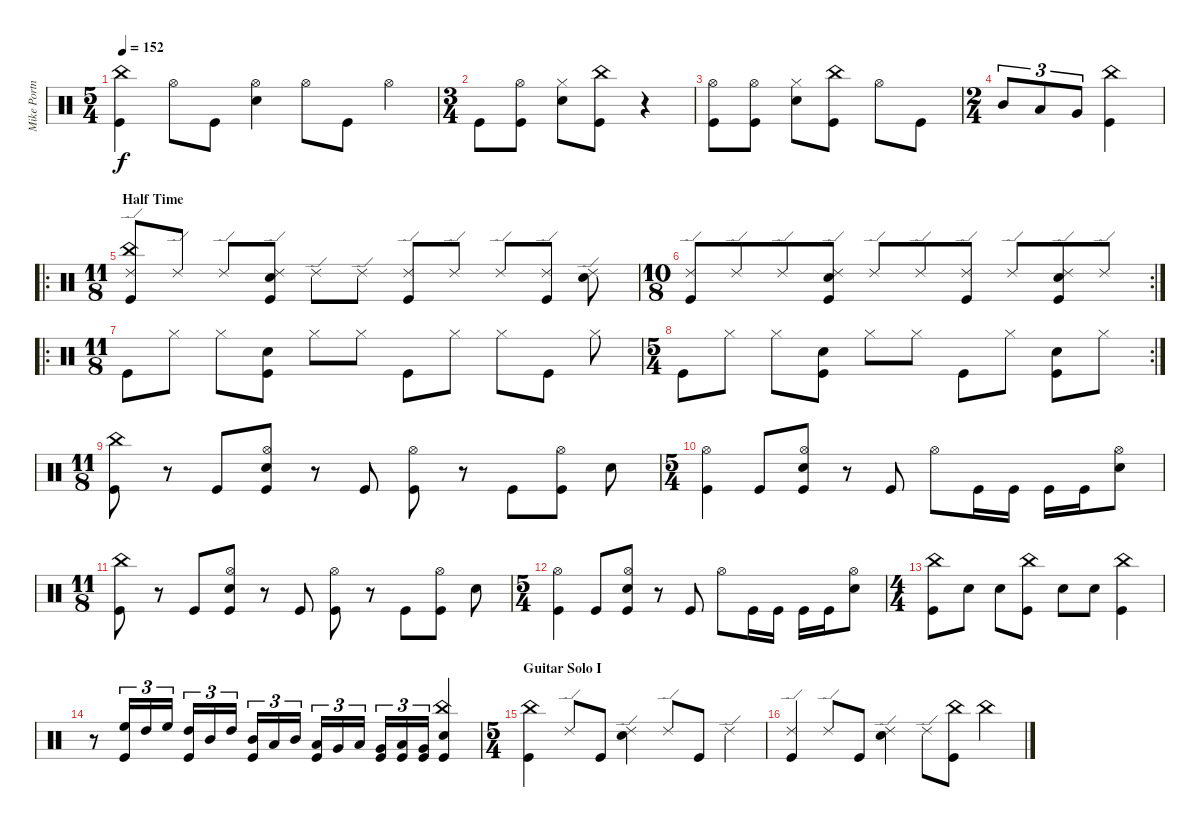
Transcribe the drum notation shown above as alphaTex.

\track ("Mike Portnoy (Drums)" "Mike Portn") {instrument percussion}
\staff {score}
\articulation defaults
\ts (5 4)
\tempo 152
\clef neutral
\ks c
("Kick (hit)" "China (hit)").4{dy f} "Hi-Hat (open)".8 "Kick (hit)".8 ("Snare (hit) 2" "Hi-Hat (open)").4 "Hi-Hat (open)".8 "Kick (hit)".8 "Hi-Hat (open)".4 |
\ts (3 4)
"Kick (hit)".8 ("Kick (hit)" "Hi-Hat (open)").8 ("Snare (hit) 2" "Hi-Hat (closed)").8 ("Kick (hit)" "China (hit)").8 r.4 |
("Kick (hit)" "Hi-Hat (open)").8 ("Kick (hit)" "Hi-Hat (open)").8 ("Snare (hit) 2" "Hi-Hat (closed)").8 ("Kick (hit)" "China (hit)").8 "Hi-Hat (open)".8 "Kick (hit)".8 |
\ts (2 4)
"Mid Tom (hit)".8{tu (3 2)} "Low Tom (hit)".8{tu (3 2)} "Very Low Tom (hit)".8{tu (3 2)} ("Kick (hit)" "China (hit)").4 |
\ro
\ts (11 8)
\section ("" "Half Time")
("Kick (hit)" "China (hit)" "Ride (edge) 2").8 "Ride (edge) 2".8 "Ride (edge) 2".8 ("Kick (hit)" "Snare (hit) 2" "Ride (edge) 2").8 "Ride (edge) 2".8 "Ride (edge) 2".8 ("Kick (hit)" "Ride (edge) 2").8 "Ride (edge) 2".8 "Ride (edge) 2".8 ("Kick (hit)" "Ride (edge) 2").8 ("Snare (hit) 2" "Ride (edge) 2").8 |
\rc 2
\ts (10 8)
("Kick (hit)" "Ride (edge) 2").8 "Ride (edge) 2".8 "Ride (edge) 2".8 ("Kick (hit)" "Snare (hit) 2" "Ride (edge) 2").8 "Ride (edge) 2".8 "Ride (edge) 2".8 ("Kick (hit)" "Ride (edge) 2").8 "Ride (edge) 2".8 ("Kick (hit)" "Snare (hit) 2" "Ride (edge) 2").8 "Ride (edge) 2".8 |
\ro
\ts (11 8)
"Kick (hit)".8 "Hi-Hat (closed)".8 "Hi-Hat (closed)".8 ("Kick (hit)" "Snare (hit) 2").8 "Hi-Hat (closed)".8 "Hi-Hat (closed)".8 "Kick (hit)".8 "Hi-Hat (closed)".8 "Hi-Hat (closed)".8 "Kick (hit)".8 "Hi-Hat (closed)".8 |
\rc 2
\ts (5 4)
"Kick (hit)".8 "Hi-Hat (closed)".8 "Hi-Hat (closed)".8 ("Kick (hit)" "Snare (hit) 2").8 "Hi-Hat (closed)".8 "Hi-Hat (closed)".8 "Kick (hit)".8 "Hi-Hat (closed)".8 ("Kick (hit)" "Snare (hit) 2").8 "Hi-Hat (closed)".8 |
\ts (11 8)
("Kick (hit)" "China (hit)").8 r.8 "Kick (hit)".8 ("Kick (hit)" "Snare (hit) 2" "Hi-Hat (open)").8 r.8 "Kick (hit)".8 ("Kick (hit)" "Hi-Hat (open)").8 r.8 "Kick (hit)".8 ("Kick (hit)" "Hi-Hat (open)").8 "Snare (hit) 2".8 |
\ts (5 4)
("Kick (hit)" "Hi-Hat (open)").4 "Kick (hit)".8 ("Kick (hit)" "Snare (hit) 2" "Hi-Hat (open)").8 r.8 "Kick (hit)".8 "Hi-Hat (open)".8 "Kick (hit)".16 "Kick (hit)".16 "Kick (hit)".16 "Kick (hit)".16 ("Snare (hit) 2" "Hi-Hat (open)").8 |
\ts (11 8)
("Kick (hit)" "China (hit)").8 r.8 "Kick (hit)".8 ("Kick (hit)" "Snare (hit) 2" "Hi-Hat (open)").8 r.8 "Kick (hit)".8 ("Kick (hit)" "Hi-Hat (open)").8 r.8 "Kick (hit)".8 ("Kick (hit)" "Hi-Hat (open)").8 "Snare (hit) 2".8 |
\ts (5 4)
("Kick (hit)" "Hi-Hat (open)").4 "Kick (hit)".8 ("Kick (hit)" "Snare (hit) 2" "Hi-Hat (open)").8 r.8 "Kick (hit)".8 "Hi-Hat (open)".8 "Kick (hit)".16 "Kick (hit)".16 "Kick (hit)".16 "Kick (hit)".16 ("Snare (hit) 2" "Hi-Hat (open)").8 |
\ts (4 4)
("Kick (hit)" "China (hit)").8 "Snare (hit) 2".8 "Snare (hit) 2".8 ("Kick (hit)" "China (hit)").8 "Snare (hit) 2".8 "Snare (hit) 2".8 ("Kick (hit)" "China (hit)").4 |
r.8 ("High Floor Tom (hit)" "Kick (hit)").16{tu (3 2)} "High Tom (hit)".16{tu (3 2)} "High Floor Tom (hit)".16{tu (3 2)} ("High Tom (hit)" "Kick (hit)").16{tu (3 2)} "Mid Tom (hit)".16{tu (3 2)} "High Tom (hit)".16{tu (3 2)} ("Mid Tom (hit)" "Kick (hit)").16{tu (3 2)} "Low Tom (hit)".16{tu (3 2)} "Mid Tom (hit)".16{tu (3 2)} ("Low Tom (hit)" "Kick (hit)").16{tu (3 2)} "Very Low Tom (hit)".16{tu (3 2)} "Low Tom (hit)".16{tu (3 2)} ("Kick (hit)" "Very Low Tom (hit)").16{tu (3 2)} ("Kick (hit)" "Low Floor Tom (hit)").16{tu (3 2)} ("Kick (hit)" "Very Low Tom (hit)").16{tu (3 2)} ("Kick (hit)" "China (hit)" "Snare (hit) 2").4 |
\ts (5 4)
\section ("" "Guitar Solo I")
("Kick (hit)" "China (hit)").4 "Ride (edge) 2".8 "Kick (hit)".8 ("Snare (hit) 2" "Ride (edge) 2").4 "Ride (edge) 2".8 "Kick (hit)".8 "Ride (edge) 2".4 |
("Kick (hit)" "Ride (edge) 2").4 "Ride (edge) 2".8 "Kick (hit)".8 ("Snare (hit) 2" "Ride (edge) 2").4 "Ride (edge) 2".8 ("Kick (hit)" "China (hit)").8 "China (hit)".4
